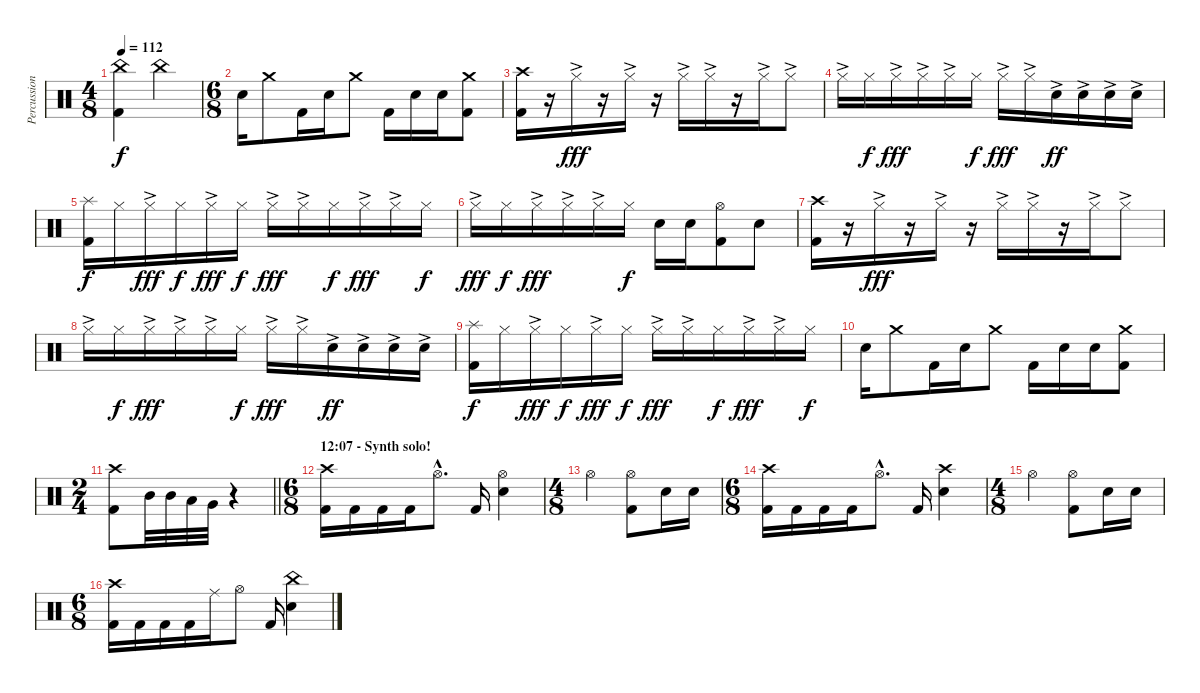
\track ("Percussion" "Percussion") {instrument percussion}
\staff {score}
\articulation defaults
\ts (4 8)
\tempo 112
\clef neutral
\ks c
("China (hit)" "Kick (hit) 2").4{dy f} "China (hit)".4 |
\ts (6 8)
"Electric Snare (hit)".16 "Crash medium (hit)".8 "Kick (hit) 2".16 "Electric Snare (hit)".16 "Crash medium (hit)".8 "Kick (hit) 2".16 "Electric Snare (hit)".16 "Electric Snare (hit)".16 ("Crash medium (hit)" "Kick (hit) 2").8 |
("Crash high (hit)" "Kick (hit) 2").16 r.16 "Hi-Hat (closed)"{ac}.16{dy fff} r.16 "Hi-Hat (closed)"{ac}.16 r.16 "Hi-Hat (closed)"{ac}.16 "Hi-Hat (closed)"{ac}.16 r.16 "Hi-Hat (closed)"{ac}.16 "Hi-Hat (closed)"{ac}.8 |
"Hi-Hat (closed)"{ac}.16 "Hi-Hat (closed)".16{dy f} "Hi-Hat (closed)"{ac}.16{dy fff} "Hi-Hat (closed)"{ac}.16 "Hi-Hat (closed)"{ac}.16 "Hi-Hat (closed)".16{dy f} "Hi-Hat (closed)"{ac}.16{dy fff} "Hi-Hat (closed)"{ac}.16 "Electric Snare (hit)"{ac}.16{dy ff} "Electric Snare (hit)"{ac}.16 "Electric Snare (hit)"{ac}.16 "Electric Snare (hit)"{ac}.16 |
("Splash (hit)" "Kick (hit) 2").16{dy f} "Hi-Hat (closed)".16 "Hi-Hat (closed)"{ac}.16{dy fff} "Hi-Hat (closed)".16{dy f} "Hi-Hat (closed)"{ac}.16{dy fff} "Hi-Hat (closed)".16{dy f} "Hi-Hat (closed)"{ac}.16{dy fff} "Hi-Hat (closed)"{ac}.16 "Hi-Hat (closed)".16{dy f} "Hi-Hat (closed)"{ac}.16{dy fff} "Hi-Hat (closed)"{ac}.16 "Hi-Hat (closed)".16{dy f} |
"Hi-Hat (closed)"{ac}.16{dy fff} "Hi-Hat (closed)".16{dy f} "Hi-Hat (closed)"{ac}.16{dy fff} "Hi-Hat (closed)"{ac}.16 "Hi-Hat (closed)"{ac}.16 "Hi-Hat (closed)".16{dy f} "Electric Snare (hit)".16 "Electric Snare (hit)".16 ("Hi-Hat (open)" "Kick (hit) 2").8 "Electric Snare (hit)".8 |
("Crash high (hit)" "Kick (hit) 2").16 r.16 "Hi-Hat (closed)"{ac}.16{dy fff} r.16 "Hi-Hat (closed)"{ac}.16 r.16 "Hi-Hat (closed)"{ac}.16 "Hi-Hat (closed)"{ac}.16 r.16 "Hi-Hat (closed)"{ac}.16 "Hi-Hat (closed)"{ac}.8 |
"Hi-Hat (closed)"{ac}.16 "Hi-Hat (closed)".16{dy f} "Hi-Hat (closed)"{ac}.16{dy fff} "Hi-Hat (closed)"{ac}.16 "Hi-Hat (closed)"{ac}.16 "Hi-Hat (closed)".16{dy f} "Hi-Hat (closed)"{ac}.16{dy fff} "Hi-Hat (closed)"{ac}.16 "Electric Snare (hit)"{ac}.16{dy ff} "Electric Snare (hit)"{ac}.16 "Electric Snare (hit)"{ac}.16 "Electric Snare (hit)"{ac}.16 |
("Splash (hit)" "Kick (hit) 2").16{dy f} "Hi-Hat (closed)".16 "Hi-Hat (closed)"{ac}.16{dy fff} "Hi-Hat (closed)".16{dy f} "Hi-Hat (closed)"{ac}.16{dy fff} "Hi-Hat (closed)".16{dy f} "Hi-Hat (closed)"{ac}.16{dy fff} "Hi-Hat (closed)"{ac}.16 "Hi-Hat (closed)".16{dy f} "Hi-Hat (closed)"{ac}.16{dy fff} "Hi-Hat (closed)"{ac}.16 "Hi-Hat (closed)".16{dy f} |
"Electric Snare (hit)".16 "Crash medium (hit)".8 "Kick (hit) 2".16 "Electric Snare (hit)".16 "Crash medium (hit)".8 "Kick (hit) 2".16 "Electric Snare (hit)".16 "Electric Snare (hit)".16 ("Crash medium (hit)" "Kick (hit) 2").8 |
\ts (2 4)
\barLineRight lightlight
("Crash high (hit)" "Kick (hit) 2").8 "Mid Tom (hit)".32 "Mid Tom (hit)".32 "Low Tom (hit)".32 "Very Low Tom (hit)".32 r.4 |
\ts (6 8)
\section ("" "12:07 - Synth solo!")
("Crash high (hit)" "Kick (hit) 2").16 "Kick (hit) 2".16 "Kick (hit) 2".16 "Kick (hit) 2".16 "Hi-Hat (open)"{hac}.8{d} "Kick (hit) 2".16 ("Hi-Hat (open)" "Electric Snare (hit)").4 |
\ts (4 8)
"Hi-Hat (open)".4 ("Hi-Hat (open)" "Kick (hit) 2").8 "Electric Snare (hit)".16 "Electric Snare (hit)".16 |
\ts (6 8)
("Crash high (hit)" "Kick (hit) 2").16 "Kick (hit) 2".16 "Kick (hit) 2".16 "Kick (hit) 2".16 "Hi-Hat (open)"{hac}.8{d} "Kick (hit) 2".16 ("Crash high (hit)" "Electric Snare (hit)").4 |
\ts (4 8)
"Hi-Hat (open)".4 ("Hi-Hat (open)" "Kick (hit) 2").8 "Electric Snare (hit)".16 "Electric Snare (hit)".16 |
\ts (6 8)
("Crash high (hit)" "Kick (hit) 2").16 "Kick (hit) 2".16 "Kick (hit) 2".16 "Kick (hit) 2".16 "Ride (middle)".16 "Hi-Hat (open)".8 "Kick (hit) 2".16 ("China (hit)" "Electric Snare (hit)").4
